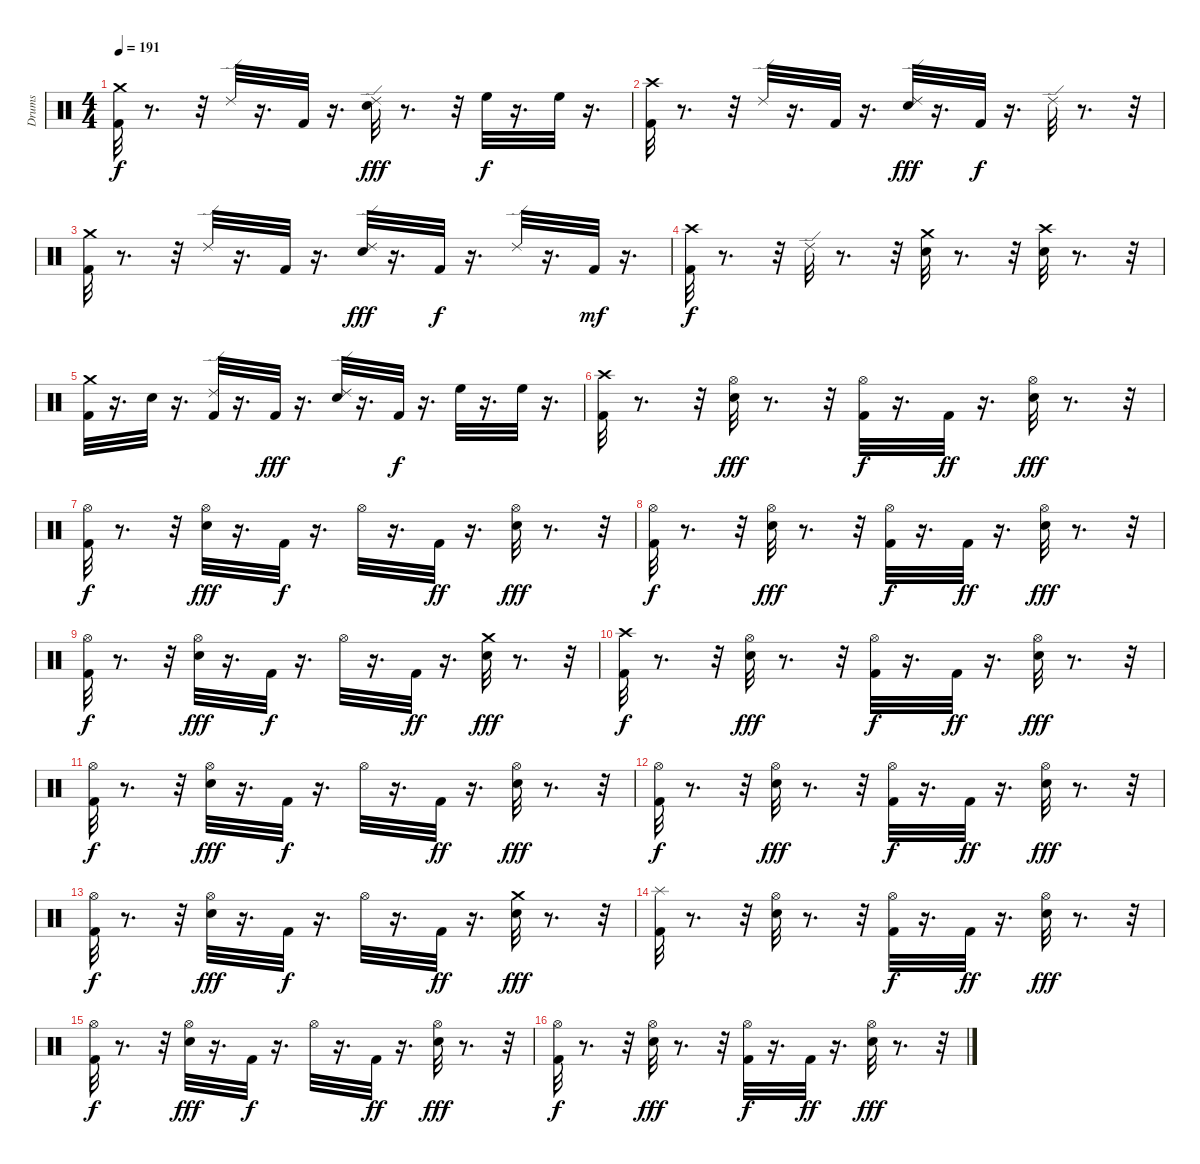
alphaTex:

\track ("Drums" "Drums") {instrument percussion}
\staff {score}
\articulation defaults
\ts (4 4)
\tempo 191
\clef neutral
\ks c
("Kick (hit) 2" "Crash medium (hit)").32{dy f} r.8{d} r.32 "Ride (edge) 2".32 r.16{d} "Kick (hit) 2".32 r.16{d} ("Snare (hit) 2" "Ride (edge) 2").32{dy fff} r.8{d} r.32 "High Floor Tom (hit)".32{dy f} r.16{d} "High Floor Tom (hit)".32 r.16{d} |
("Crash high (hit)" "Kick (hit) 2").32 r.8{d} r.32 "Ride (edge) 2".32 r.16{d} "Kick (hit) 2".32 r.16{d} ("Snare (hit) 2" "Ride (edge) 2").32{dy fff} r.16{d} "Kick (hit) 2".32{dy f} r.16{d} "Ride (edge) 2".32 r.8{d} r.32 |
("Crash medium (hit)" "Kick (hit) 2").32 r.8{d} r.32 "Ride (edge) 2".32 r.16{d} "Kick (hit) 2".32 r.16{d} ("Snare (hit) 2" "Ride (edge) 2").32{dy fff} r.16{d} "Kick (hit) 2".32{dy f} r.16{d} "Ride (edge) 2".32 r.16{d} "Kick (hit) 2".32{dy mf} r.16{d} |
("Crash high (hit)" "Kick (hit) 2").32{dy f} r.8{d} r.32 "Ride (edge) 2".32 r.8{d} r.32 ("Crash medium (hit)" "Snare (hit) 2").32 r.8{d} r.32 ("Crash high (hit)" "Snare (hit) 2").32 r.8{d} r.32 |
("Kick (hit) 2" "Crash medium (hit)").32 r.16{d} "Snare (hit) 2".32 r.16{d} ("Kick (hit) 2" "Ride (edge) 2").32 r.16{d} "Kick (hit) 2".32{dy fff} r.16{d} ("Snare (hit) 2" "Ride (edge) 2").32 r.16{d} "Kick (hit) 2".32{dy f} r.16{d} "High Floor Tom (hit)".32 r.16{d} "High Floor Tom (hit)".32 r.16{d} |
("Crash high (hit)" "Kick (hit) 2").32 r.8{d} r.32 ("Snare (hit) 2" "Hi-Hat (open)").32{dy fff} r.8{d} r.32 ("Kick (hit) 2" "Hi-Hat (open)").32{dy f} r.16{d} "Kick (hit) 2".32{dy ff} r.16{d} ("Snare (hit) 2" "Hi-Hat (open)").32{dy fff} r.8{d} r.32 |
("Kick (hit) 2" "Hi-Hat (open)").32{dy f} r.8{d} r.32 ("Snare (hit) 2" "Hi-Hat (open)").32{dy fff} r.16{d} "Kick (hit) 2".32{dy f} r.16{d} "Hi-Hat (open)".32 r.16{d} "Kick (hit) 2".32{dy ff} r.16{d} ("Snare (hit) 2" "Hi-Hat (open)").32{dy fff} r.8{d} r.32 |
("Kick (hit) 2" "Hi-Hat (open)").32{dy f} r.8{d} r.32 ("Snare (hit) 2" "Hi-Hat (open)").32{dy fff} r.8{d} r.32 ("Kick (hit) 2" "Hi-Hat (open)").32{dy f} r.16{d} "Kick (hit) 2".32{dy ff} r.16{d} ("Snare (hit) 2" "Hi-Hat (open)").32{dy fff} r.8{d} r.32 |
("Kick (hit) 2" "Hi-Hat (open)").32{dy f} r.8{d} r.32 ("Snare (hit) 2" "Hi-Hat (open)").32{dy fff} r.16{d} "Kick (hit) 2".32{dy f} r.16{d} "Hi-Hat (open)".32 r.16{d} "Kick (hit) 2".32{dy ff} r.16{d} ("Snare (hit) 2" "Crash medium (hit)").32{dy fff} r.8{d} r.32 |
("Crash high (hit)" "Kick (hit) 2").32{dy f} r.8{d} r.32 ("Snare (hit) 2" "Hi-Hat (open)").32{dy fff} r.8{d} r.32 ("Kick (hit) 2" "Hi-Hat (open)").32{dy f} r.16{d} "Kick (hit) 2".32{dy ff} r.16{d} ("Snare (hit) 2" "Hi-Hat (open)").32{dy fff} r.8{d} r.32 |
("Kick (hit) 2" "Hi-Hat (open)").32{dy f} r.8{d} r.32 ("Snare (hit) 2" "Hi-Hat (open)").32{dy fff} r.16{d} "Kick (hit) 2".32{dy f} r.16{d} "Hi-Hat (open)".32 r.16{d} "Kick (hit) 2".32{dy ff} r.16{d} ("Snare (hit) 2" "Hi-Hat (open)").32{dy fff} r.8{d} r.32 |
("Kick (hit) 2" "Hi-Hat (open)").32{dy f} r.8{d} r.32 ("Snare (hit) 2" "Hi-Hat (open)").32{dy fff} r.8{d} r.32 ("Kick (hit) 2" "Hi-Hat (open)").32{dy f} r.16{d} "Kick (hit) 2".32{dy ff} r.16{d} ("Snare (hit) 2" "Hi-Hat (open)").32{dy fff} r.8{d} r.32 |
("Kick (hit) 2" "Hi-Hat (open)").32{dy f} r.8{d} r.32 ("Snare (hit) 2" "Hi-Hat (open)").32{dy fff} r.16{d} "Kick (hit) 2".32{dy f} r.16{d} "Hi-Hat (open)".32 r.16{d} "Kick (hit) 2".32{dy ff} r.16{d} ("Snare (hit) 2" "Crash medium (hit)").32{dy fff} r.8{d} r.32 |
("Splash (hit)" "Kick (hit) 2").32 r.8{d} r.32 ("Snare (hit) 2" "Hi-Hat (open)").32 r.8{d} r.32 ("Kick (hit) 2" "Hi-Hat (open)").32{dy f} r.16{d} "Kick (hit) 2".32{dy ff} r.16{d} ("Snare (hit) 2" "Hi-Hat (open)").32{dy fff} r.8{d} r.32 |
("Kick (hit) 2" "Hi-Hat (open)").32{dy f} r.8{d} r.32 ("Snare (hit) 2" "Hi-Hat (open)").32{dy fff} r.16{d} "Kick (hit) 2".32{dy f} r.16{d} "Hi-Hat (open)".32 r.16{d} "Kick (hit) 2".32{dy ff} r.16{d} ("Snare (hit) 2" "Hi-Hat (open)").32{dy fff} r.8{d} r.32 |
("Kick (hit) 2" "Hi-Hat (open)").32{dy f} r.8{d} r.32 ("Snare (hit) 2" "Hi-Hat (open)").32{dy fff} r.8{d} r.32 ("Kick (hit) 2" "Hi-Hat (open)").32{dy f} r.16{d} "Kick (hit) 2".32{dy ff} r.16{d} ("Snare (hit) 2" "Hi-Hat (open)").32{dy fff} r.8{d} r.32
